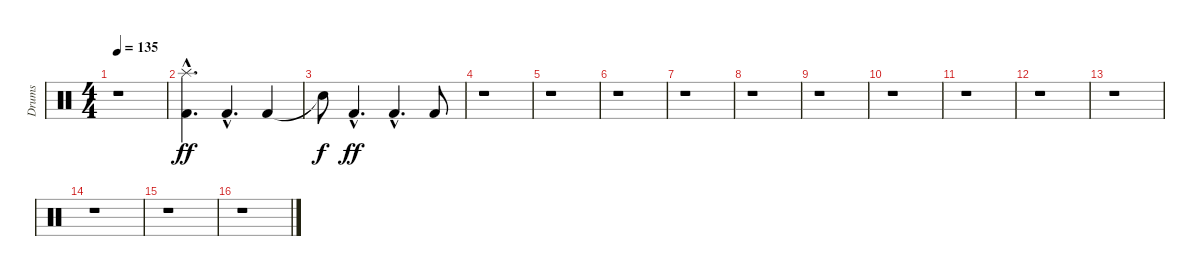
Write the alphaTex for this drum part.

\track ("Drums" "Drums") {instrument percussion}
\staff {score}
\articulation defaults
\ts (4 4)
\tempo 135
\clef neutral
\ks c
r.1{dy ff} |
("Kick (hit) 2"{hac} "Splash (hit)"{hac}).4{d} "Kick (hit) 2"{hac}.4{d} "Kick (hit) 2".4 |
"Snare (hit)"{t}.8{dy f} "Kick (hit) 2"{hac}.4{d dy ff} "Kick (hit) 2"{hac}.4{d} "Kick (hit) 2".8 |
r.1 |
r.1 |
r.1 |
r.1 |
r.1 |
r.1 |
r.1 |
r.1 |
r.1 |
r.1 |
r.1 |
r.1 |
r.1
